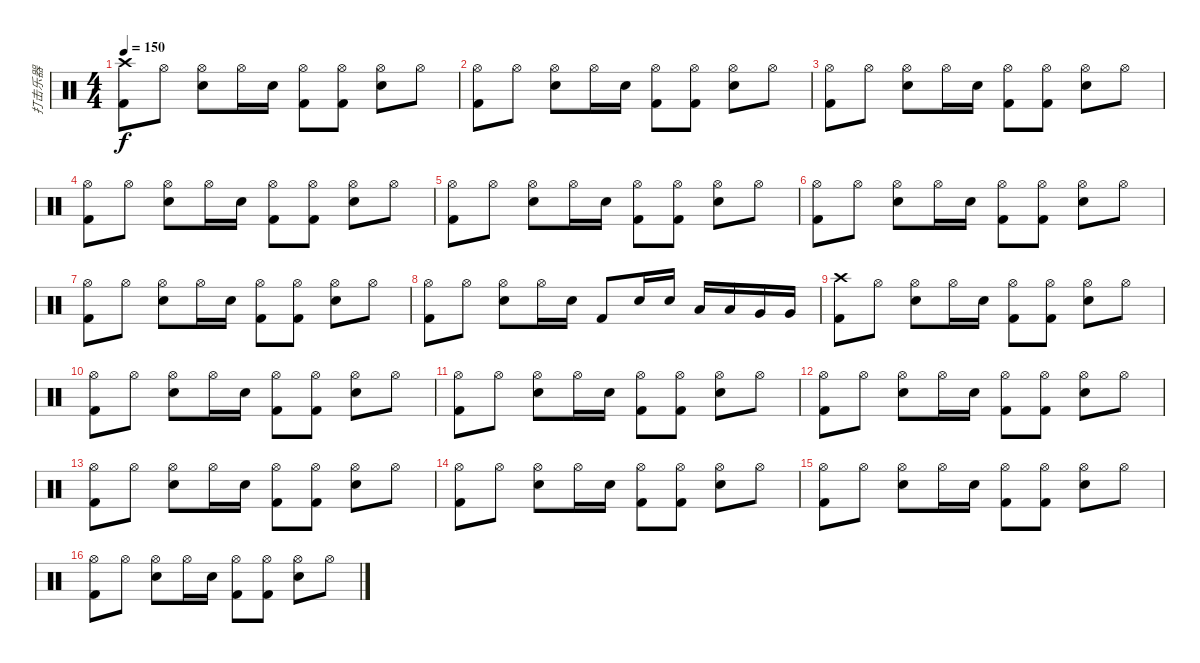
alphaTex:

\track ("打击乐器" "打击乐器") {instrument percussion}
\staff {score}
\articulation defaults
\ts (4 4)
\tempo 150
\clef neutral
\ks c
("Crash high (hit)" "Kick (hit) 2").8{dy f} "Hi-Hat (open)".8 ("Hi-Hat (open)" "Snare (hit) 2").8 "Hi-Hat (open)".16 "Snare (hit) 2".16 ("Hi-Hat (open)" "Kick (hit) 2").8 ("Hi-Hat (open)" "Kick (hit) 2").8 ("Hi-Hat (open)" "Snare (hit) 2").8 "Hi-Hat (open)".8 |
("Hi-Hat (open)" "Kick (hit) 2").8 "Hi-Hat (open)".8 ("Hi-Hat (open)" "Snare (hit) 2").8 "Hi-Hat (open)".16 "Snare (hit) 2".16 ("Hi-Hat (open)" "Kick (hit) 2").8 ("Hi-Hat (open)" "Kick (hit) 2").8 ("Hi-Hat (open)" "Snare (hit) 2").8 "Hi-Hat (open)".8 |
("Hi-Hat (open)" "Kick (hit) 2").8 "Hi-Hat (open)".8 ("Hi-Hat (open)" "Snare (hit) 2").8 "Hi-Hat (open)".16 "Snare (hit) 2".16 ("Hi-Hat (open)" "Kick (hit) 2").8 ("Hi-Hat (open)" "Kick (hit) 2").8 ("Hi-Hat (open)" "Snare (hit) 2").8 "Hi-Hat (open)".8 |
("Hi-Hat (open)" "Kick (hit) 2").8 "Hi-Hat (open)".8 ("Hi-Hat (open)" "Snare (hit) 2").8 "Hi-Hat (open)".16 "Snare (hit) 2".16 ("Hi-Hat (open)" "Kick (hit) 2").8 ("Hi-Hat (open)" "Kick (hit) 2").8 ("Hi-Hat (open)" "Snare (hit) 2").8 "Hi-Hat (open)".8 |
("Hi-Hat (open)" "Kick (hit) 2").8 "Hi-Hat (open)".8 ("Hi-Hat (open)" "Snare (hit) 2").8 "Hi-Hat (open)".16 "Snare (hit) 2".16 ("Hi-Hat (open)" "Kick (hit) 2").8 ("Hi-Hat (open)" "Kick (hit) 2").8 ("Hi-Hat (open)" "Snare (hit) 2").8 "Hi-Hat (open)".8 |
("Hi-Hat (open)" "Kick (hit) 2").8 "Hi-Hat (open)".8 ("Hi-Hat (open)" "Snare (hit) 2").8 "Hi-Hat (open)".16 "Snare (hit) 2".16 ("Hi-Hat (open)" "Kick (hit) 2").8 ("Hi-Hat (open)" "Kick (hit) 2").8 ("Hi-Hat (open)" "Snare (hit) 2").8 "Hi-Hat (open)".8 |
("Hi-Hat (open)" "Kick (hit) 2").8 "Hi-Hat (open)".8 ("Hi-Hat (open)" "Snare (hit) 2").8 "Hi-Hat (open)".16 "Snare (hit) 2".16 ("Hi-Hat (open)" "Kick (hit) 2").8 ("Hi-Hat (open)" "Kick (hit) 2").8 ("Hi-Hat (open)" "Snare (hit) 2").8 "Hi-Hat (open)".8 |
("Hi-Hat (open)" "Kick (hit) 2").8 "Hi-Hat (open)".8 ("Hi-Hat (open)" "Snare (hit) 2").8 "Hi-Hat (open)".16 "Snare (hit) 2".16 "Kick (hit) 2".8 "Snare (hit) 2".16 "Snare (hit) 2".16 "Low Tom (hit)".16 "Low Tom (hit)".16 "Very Low Tom (hit)".16 "Very Low Tom (hit)".16 |
("Crash high (hit)" "Kick (hit) 2").8 "Hi-Hat (open)".8 ("Hi-Hat (open)" "Snare (hit) 2").8 "Hi-Hat (open)".16 "Snare (hit) 2".16 ("Hi-Hat (open)" "Kick (hit) 2").8 ("Hi-Hat (open)" "Kick (hit) 2").8 ("Hi-Hat (open)" "Snare (hit) 2").8 "Hi-Hat (open)".8 |
("Hi-Hat (open)" "Kick (hit) 2").8 "Hi-Hat (open)".8 ("Hi-Hat (open)" "Snare (hit) 2").8 "Hi-Hat (open)".16 "Snare (hit) 2".16 ("Hi-Hat (open)" "Kick (hit) 2").8 ("Hi-Hat (open)" "Kick (hit) 2").8 ("Hi-Hat (open)" "Snare (hit) 2").8 "Hi-Hat (open)".8 |
("Hi-Hat (open)" "Kick (hit) 2").8 "Hi-Hat (open)".8 ("Hi-Hat (open)" "Snare (hit) 2").8 "Hi-Hat (open)".16 "Snare (hit) 2".16 ("Hi-Hat (open)" "Kick (hit) 2").8 ("Hi-Hat (open)" "Kick (hit) 2").8 ("Hi-Hat (open)" "Snare (hit) 2").8 "Hi-Hat (open)".8 |
("Hi-Hat (open)" "Kick (hit) 2").8 "Hi-Hat (open)".8 ("Hi-Hat (open)" "Snare (hit) 2").8 "Hi-Hat (open)".16 "Snare (hit) 2".16 ("Hi-Hat (open)" "Kick (hit) 2").8 ("Hi-Hat (open)" "Kick (hit) 2").8 ("Hi-Hat (open)" "Snare (hit) 2").8 "Hi-Hat (open)".8 |
("Hi-Hat (open)" "Kick (hit) 2").8 "Hi-Hat (open)".8 ("Hi-Hat (open)" "Snare (hit) 2").8 "Hi-Hat (open)".16 "Snare (hit) 2".16 ("Hi-Hat (open)" "Kick (hit) 2").8 ("Hi-Hat (open)" "Kick (hit) 2").8 ("Hi-Hat (open)" "Snare (hit) 2").8 "Hi-Hat (open)".8 |
("Hi-Hat (open)" "Kick (hit) 2").8 "Hi-Hat (open)".8 ("Hi-Hat (open)" "Snare (hit) 2").8 "Hi-Hat (open)".16 "Snare (hit) 2".16 ("Hi-Hat (open)" "Kick (hit) 2").8 ("Hi-Hat (open)" "Kick (hit) 2").8 ("Hi-Hat (open)" "Snare (hit) 2").8 "Hi-Hat (open)".8 |
("Hi-Hat (open)" "Kick (hit) 2").8 "Hi-Hat (open)".8 ("Hi-Hat (open)" "Snare (hit) 2").8 "Hi-Hat (open)".16 "Snare (hit) 2".16 ("Hi-Hat (open)" "Kick (hit) 2").8 ("Hi-Hat (open)" "Kick (hit) 2").8 ("Hi-Hat (open)" "Snare (hit) 2").8 "Hi-Hat (open)".8 |
("Hi-Hat (open)" "Kick (hit) 2").8 "Hi-Hat (open)".8 ("Hi-Hat (open)" "Snare (hit) 2").8 "Hi-Hat (open)".16 "Snare (hit) 2".16 ("Hi-Hat (open)" "Kick (hit) 2").8 ("Hi-Hat (open)" "Kick (hit) 2").8 ("Hi-Hat (open)" "Snare (hit) 2").8 "Hi-Hat (open)".8
